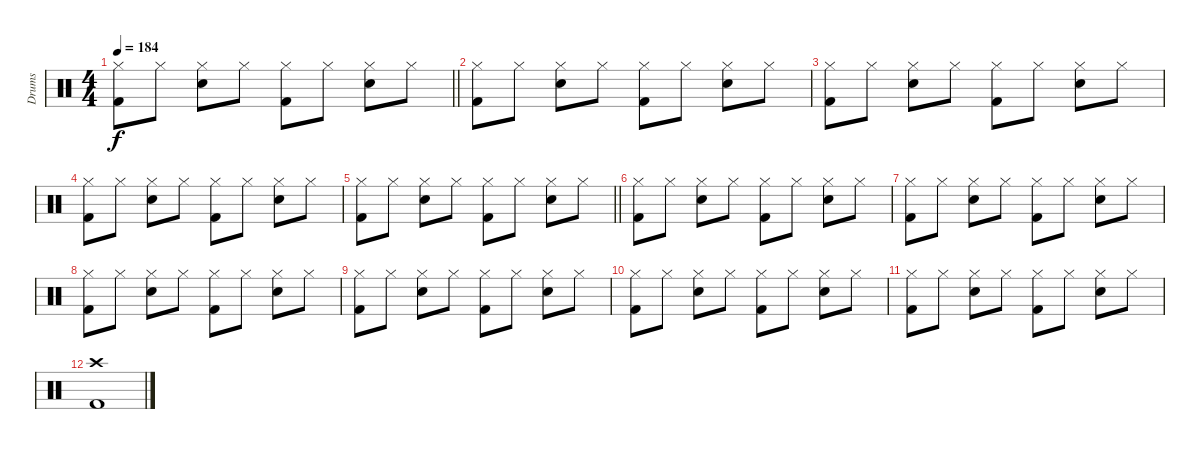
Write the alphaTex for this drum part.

\track ("Drums" "Drums") {instrument percussion}
\staff {score}
\articulation defaults
\ts (4 4)
\tempo 184
\clef neutral
\barLineRight lightlight
\ks c
("Hi-Hat (closed)" "Kick (hit) 2").8{dy f} "Hi-Hat (closed)".8 ("Hi-Hat (closed)" "Snare (hit) 2").8 "Hi-Hat (closed)".8 ("Hi-Hat (closed)" "Kick (hit) 2").8 "Hi-Hat (closed)".8 ("Hi-Hat (closed)" "Snare (hit) 2").8 "Hi-Hat (closed)".8 |
("Hi-Hat (closed)" "Kick (hit) 2").8 "Hi-Hat (closed)".8 ("Hi-Hat (closed)" "Snare (hit) 2").8 "Hi-Hat (closed)".8 ("Hi-Hat (closed)" "Kick (hit) 2").8 "Hi-Hat (closed)".8 ("Hi-Hat (closed)" "Snare (hit) 2").8 "Hi-Hat (closed)".8 |
("Hi-Hat (closed)" "Kick (hit) 2").8 "Hi-Hat (closed)".8 ("Hi-Hat (closed)" "Snare (hit) 2").8 "Hi-Hat (closed)".8 ("Hi-Hat (closed)" "Kick (hit) 2").8 "Hi-Hat (closed)".8 ("Hi-Hat (closed)" "Snare (hit) 2").8 "Hi-Hat (closed)".8 |
("Hi-Hat (closed)" "Kick (hit) 2").8 "Hi-Hat (closed)".8 ("Hi-Hat (closed)" "Snare (hit) 2").8 "Hi-Hat (closed)".8 ("Hi-Hat (closed)" "Kick (hit) 2").8 "Hi-Hat (closed)".8 ("Hi-Hat (closed)" "Snare (hit) 2").8 "Hi-Hat (closed)".8 |
\barLineRight lightlight
("Hi-Hat (closed)" "Kick (hit) 2").8 "Hi-Hat (closed)".8 ("Hi-Hat (closed)" "Snare (hit) 2").8 "Hi-Hat (closed)".8 ("Hi-Hat (closed)" "Kick (hit) 2").8 "Hi-Hat (closed)".8 ("Hi-Hat (closed)" "Snare (hit) 2").8 "Hi-Hat (closed)".8 |
("Hi-Hat (closed)" "Kick (hit) 2").8 "Hi-Hat (closed)".8 ("Hi-Hat (closed)" "Snare (hit) 2").8 "Hi-Hat (closed)".8 ("Hi-Hat (closed)" "Kick (hit) 2").8 "Hi-Hat (closed)".8 ("Hi-Hat (closed)" "Snare (hit) 2").8 "Hi-Hat (closed)".8 |
("Hi-Hat (closed)" "Kick (hit) 2").8 "Hi-Hat (closed)".8 ("Hi-Hat (closed)" "Snare (hit) 2").8 "Hi-Hat (closed)".8 ("Hi-Hat (closed)" "Kick (hit) 2").8 "Hi-Hat (closed)".8 ("Hi-Hat (closed)" "Snare (hit) 2").8 "Hi-Hat (closed)".8 |
("Hi-Hat (closed)" "Kick (hit) 2").8 "Hi-Hat (closed)".8 ("Hi-Hat (closed)" "Snare (hit) 2").8 "Hi-Hat (closed)".8 ("Hi-Hat (closed)" "Kick (hit) 2").8 "Hi-Hat (closed)".8 ("Hi-Hat (closed)" "Snare (hit) 2").8 "Hi-Hat (closed)".8 |
("Hi-Hat (closed)" "Kick (hit) 2").8 "Hi-Hat (closed)".8 ("Hi-Hat (closed)" "Snare (hit) 2").8 "Hi-Hat (closed)".8 ("Hi-Hat (closed)" "Kick (hit) 2").8 "Hi-Hat (closed)".8 ("Hi-Hat (closed)" "Snare (hit) 2").8 "Hi-Hat (closed)".8 |
("Hi-Hat (closed)" "Kick (hit) 2").8 "Hi-Hat (closed)".8 ("Hi-Hat (closed)" "Snare (hit) 2").8 "Hi-Hat (closed)".8 ("Hi-Hat (closed)" "Kick (hit) 2").8 "Hi-Hat (closed)".8 ("Hi-Hat (closed)" "Snare (hit) 2").8 "Hi-Hat (closed)".8 |
("Hi-Hat (closed)" "Kick (hit) 2").8 "Hi-Hat (closed)".8 ("Hi-Hat (closed)" "Snare (hit) 2").8 "Hi-Hat (closed)".8 ("Hi-Hat (closed)" "Kick (hit) 2").8 "Hi-Hat (closed)".8 ("Hi-Hat (closed)" "Snare (hit) 2").8 "Hi-Hat (closed)".8 |
("Crash high (hit)" "Kick (hit) 2").1
